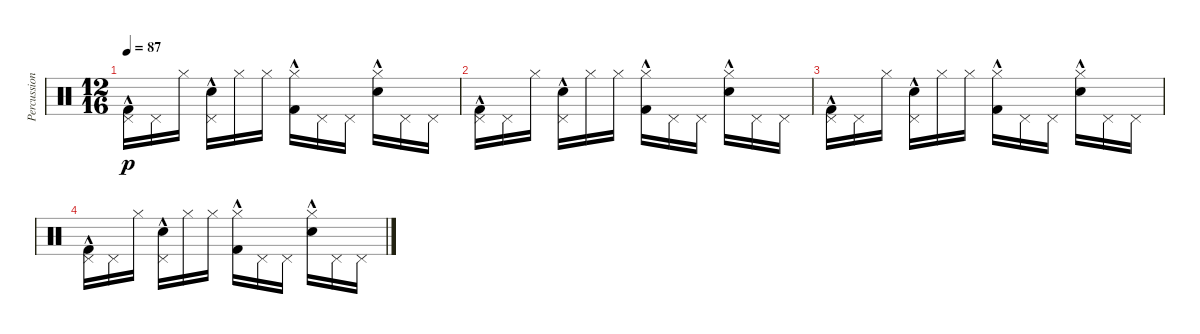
\track ("Percussion" "Percussion") {instrument percussion}
\staff {score}
\articulation defaults
\ts (12 16)
\tempo 87
\clef neutral
\ks c
("Kick (hit) 2"{hac} "Pedal Hi-Hat (hit)").16{dy p volume 11} "Pedal Hi-Hat (hit)".16{volume 11} "Hi-Hat (closed)".16{volume 10} ("Hand Clap (hit)"{hac} "Pedal Hi-Hat (hit)").16{volume 10} "Hi-Hat (closed)".16{volume 10} "Hi-Hat (closed)".16{volume 10} ("Kick (hit) 2"{hac} "Hi-Hat (closed)").16{volume 10} "Pedal Hi-Hat (hit)".16{volume 9} "Pedal Hi-Hat (hit)".16{volume 9} ("Hand Clap (hit)"{hac} "Hi-Hat (closed)").16{volume 9} "Pedal Hi-Hat (hit)".16{volume 9} "Pedal Hi-Hat (hit)".16{volume 8} |
("Kick (hit) 2"{hac} "Pedal Hi-Hat (hit)").16{volume 8} "Pedal Hi-Hat (hit)".16{volume 8} "Hi-Hat (closed)".16{volume 8} ("Hand Clap (hit)"{hac} "Pedal Hi-Hat (hit)").16{volume 8} "Hi-Hat (closed)".16{volume 7} "Hi-Hat (closed)".16{volume 7} ("Kick (hit) 2"{hac} "Hi-Hat (closed)").16{volume 7} "Pedal Hi-Hat (hit)".16{volume 6} "Pedal Hi-Hat (hit)".16{volume 6} ("Hand Clap (hit)"{hac} "Hi-Hat (closed)").16{volume 6} "Pedal Hi-Hat (hit)".16{volume 6} "Pedal Hi-Hat (hit)".16{volume 6} |
("Kick (hit) 2"{hac} "Pedal Hi-Hat (hit)").16{volume 5} "Pedal Hi-Hat (hit)".16{volume 5} "Hi-Hat (closed)".16{volume 5} ("Hand Clap (hit)"{hac} "Pedal Hi-Hat (hit)").16{volume 5} "Hi-Hat (closed)".16{volume 4} "Hi-Hat (closed)".16{volume 4} ("Kick (hit) 2"{hac} "Hi-Hat (closed)").16{volume 4} "Pedal Hi-Hat (hit)".16{volume 4} "Pedal Hi-Hat (hit)".16{volume 4} ("Hand Clap (hit)"{hac} "Hi-Hat (closed)").16{volume 3} "Pedal Hi-Hat (hit)".16{volume 3} "Pedal Hi-Hat (hit)".16{volume 3} |
("Kick (hit) 2"{hac} "Pedal Hi-Hat (hit)").16{volume 3} "Pedal Hi-Hat (hit)".16{volume 2} "Hi-Hat (closed)".16{volume 2} ("Hand Clap (hit)"{hac} "Pedal Hi-Hat (hit)").16{volume 2} "Hi-Hat (closed)".16{volume 2} "Hi-Hat (closed)".16{volume 2} ("Kick (hit) 2"{hac} "Hi-Hat (closed)").16{volume 1} "Pedal Hi-Hat (hit)".16{volume 1} "Pedal Hi-Hat (hit)".16{volume 1} ("Hand Clap (hit)"{hac} "Hi-Hat (closed)").16{volume 1} "Pedal Hi-Hat (hit)".16{volume 0} "Pedal Hi-Hat (hit)".16{volume 0}
